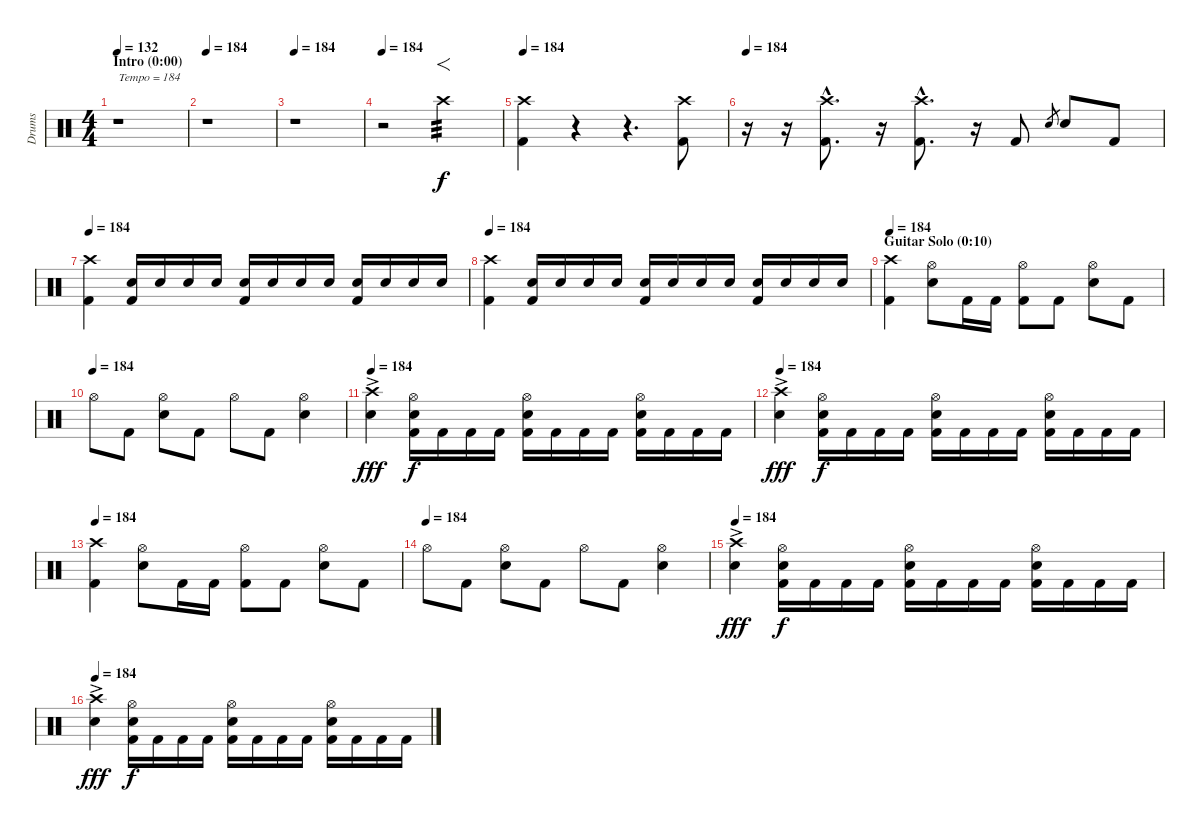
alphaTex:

\track ("Drums" "Drums") {instrument percussion}
\staff {score}
\articulation defaults
\ts (4 4)
\section ("" "Intro (0:00)")
\tempo 132
\tempo 184
\tempo 132
\clef neutral
\ks c
r.1{txt "Tempo = 184" dy f} |
\tempo 184
r.1 |
\tempo 184
r.1 |
\tempo 184
r.2 "Crash high (hit)".2{f tp 3} |
\tempo 184
("Crash high (hit)" "Kick (hit) 2").4 r.4{volume 0} r.4{d} ("Crash high (hit)" "Kick (hit) 2").8{volume 16} |
\tempo 184
r.16 r.16{volume 0} ("Crash high (hit)"{hac} "Kick (hit) 2"{hac}).8{d volume 16} r.16{volume 0} ("Crash high (hit)"{hac} "Kick (hit) 2"{hac}).8{d volume 16} r.16{volume 0} "Kick (hit) 2".8{volume 16} "Snare (hit) 2".8{gr} "Snare (hit) 2".8 "Kick (hit) 2".8 |
\tempo 184
("Crash high (hit)" "Kick (hit) 2").4 ("Snare (hit) 2" "Kick (hit) 2").16 "Snare (hit) 2".16 "Snare (hit) 2".16 "Snare (hit) 2".16 ("Snare (hit) 2" "Kick (hit) 2").16 "Snare (hit) 2".16 "Snare (hit) 2".16 "Snare (hit) 2".16 ("Snare (hit) 2" "Kick (hit) 2").16 "Snare (hit) 2".16 "Snare (hit) 2".16 "Snare (hit) 2".16 |
\tempo 184
("Crash high (hit)" "Kick (hit) 2").4 ("Snare (hit) 2" "Kick (hit) 2").16 "Snare (hit) 2".16 "Snare (hit) 2".16 "Snare (hit) 2".16 ("Snare (hit) 2" "Kick (hit) 2").16 "Snare (hit) 2".16 "Snare (hit) 2".16 "Snare (hit) 2".16 ("Snare (hit) 2" "Kick (hit) 2").16 "Snare (hit) 2".16 "Snare (hit) 2".16 "Snare (hit) 2".16 |
\section ("" "Guitar Solo (0:10)")
\tempo 184
("Crash high (hit)" "Kick (hit) 2").4 ("Hi-Hat (open)" "Snare (hit) 2").8 "Kick (hit) 2".16 "Kick (hit) 2".16 ("Hi-Hat (open)" "Kick (hit) 2").8 "Kick (hit) 2".8 ("Hi-Hat (open)" "Snare (hit) 2").8 "Kick (hit) 2".8 |
\tempo (184)
"Hi-Hat (open)".8 "Kick (hit) 2".8 ("Hi-Hat (open)" "Snare (hit) 2").8 "Kick (hit) 2".8 "Hi-Hat (open)".8 "Kick (hit) 2".8 ("Hi-Hat (open)" "Snare (hit) 2").4 |
\tempo 184
("Crash high (hit)" "Snare (hit) 2"{ac}).4{dy fff} ("Hi-Hat (open)" "Snare (hit) 2" "Kick (hit) 2").16{dy f} "Kick (hit) 2".16 "Kick (hit) 2".16 "Kick (hit) 2".16 ("Hi-Hat (open)" "Snare (hit) 2" "Kick (hit) 2").16 "Kick (hit) 2".16 "Kick (hit) 2".16 "Kick (hit) 2".16 ("Hi-Hat (open)" "Snare (hit) 2" "Kick (hit) 2").16 "Kick (hit) 2".16 "Kick (hit) 2".16 "Kick (hit) 2".16 |
\tempo 184
("Crash high (hit)" "Snare (hit) 2"{ac}).4{dy fff} ("Hi-Hat (open)" "Snare (hit) 2" "Kick (hit) 2").16{dy f} "Kick (hit) 2".16 "Kick (hit) 2".16 "Kick (hit) 2".16 ("Hi-Hat (open)" "Snare (hit) 2" "Kick (hit) 2").16 "Kick (hit) 2".16 "Kick (hit) 2".16 "Kick (hit) 2".16 ("Hi-Hat (open)" "Snare (hit) 2" "Kick (hit) 2").16 "Kick (hit) 2".16 "Kick (hit) 2".16 "Kick (hit) 2".16 |
\tempo 184
("Crash high (hit)" "Kick (hit) 2").4 ("Hi-Hat (open)" "Snare (hit) 2").8 "Kick (hit) 2".16 "Kick (hit) 2".16 ("Hi-Hat (open)" "Kick (hit) 2").8 "Kick (hit) 2".8 ("Hi-Hat (open)" "Snare (hit) 2").8 "Kick (hit) 2".8 |
\tempo (184)
"Hi-Hat (open)".8 "Kick (hit) 2".8 ("Hi-Hat (open)" "Snare (hit) 2").8 "Kick (hit) 2".8 "Hi-Hat (open)".8 "Kick (hit) 2".8 ("Hi-Hat (open)" "Snare (hit) 2").4 |
\tempo 184
("Crash high (hit)" "Snare (hit) 2"{ac}).4{dy fff} ("Hi-Hat (open)" "Snare (hit) 2" "Kick (hit) 2").16{dy f} "Kick (hit) 2".16 "Kick (hit) 2".16 "Kick (hit) 2".16 ("Hi-Hat (open)" "Snare (hit) 2" "Kick (hit) 2").16 "Kick (hit) 2".16 "Kick (hit) 2".16 "Kick (hit) 2".16 ("Hi-Hat (open)" "Snare (hit) 2" "Kick (hit) 2").16 "Kick (hit) 2".16 "Kick (hit) 2".16 "Kick (hit) 2".16 |
\tempo 184
("Crash high (hit)" "Snare (hit) 2"{ac}).4{dy fff} ("Hi-Hat (open)" "Snare (hit) 2" "Kick (hit) 2").16{dy f} "Kick (hit) 2".16 "Kick (hit) 2".16 "Kick (hit) 2".16 ("Hi-Hat (open)" "Snare (hit) 2" "Kick (hit) 2").16 "Kick (hit) 2".16 "Kick (hit) 2".16 "Kick (hit) 2".16 ("Hi-Hat (open)" "Snare (hit) 2" "Kick (hit) 2").16 "Kick (hit) 2".16 "Kick (hit) 2".16 "Kick (hit) 2".16
